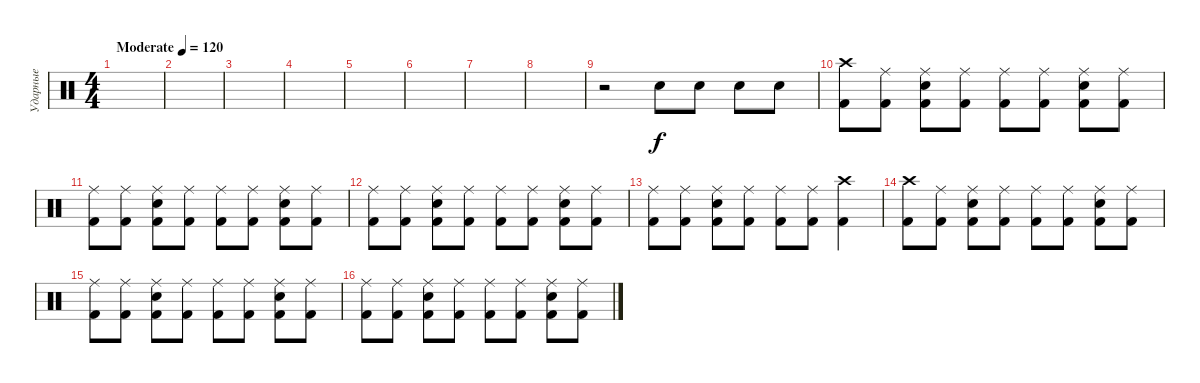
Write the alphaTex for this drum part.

\track ("Ударные" "Ударные") {instrument percussion}
\staff {score}
\articulation defaults
\ts (4 4)
\tempo (120 "Moderate")
\clef neutral
\ks c
|
|
|
|
|
|
|
|
r.2 "Snare (hit) 2".8 "Snare (hit) 2".8 "Snare (hit) 2".8 "Snare (hit) 2".8 |
("Crash high (hit)" "Kick (hit) 2").8 ("Ride (middle)" "Kick (hit) 2").8 ("Ride (middle)" "Snare (hit) 2" "Kick (hit) 2").8 ("Ride (middle)" "Kick (hit) 2").8 ("Ride (middle)" "Kick (hit) 2").8 ("Ride (middle)" "Kick (hit) 2").8 ("Ride (middle)" "Snare (hit) 2" "Kick (hit) 2").8 ("Ride (middle)" "Kick (hit) 2").8 |
("Ride (middle)" "Kick (hit) 2").8 ("Ride (middle)" "Kick (hit) 2").8 ("Ride (middle)" "Snare (hit) 2" "Kick (hit) 2").8 ("Ride (middle)" "Kick (hit) 2").8 ("Ride (middle)" "Kick (hit) 2").8 ("Ride (middle)" "Kick (hit) 2").8 ("Ride (middle)" "Snare (hit) 2" "Kick (hit) 2").8 ("Ride (middle)" "Kick (hit) 2").8 |
("Ride (middle)" "Kick (hit) 2").8 ("Ride (middle)" "Kick (hit) 2").8 ("Ride (middle)" "Snare (hit) 2" "Kick (hit) 2").8 ("Ride (middle)" "Kick (hit) 2").8 ("Ride (middle)" "Kick (hit) 2").8 ("Ride (middle)" "Kick (hit) 2").8 ("Ride (middle)" "Snare (hit) 2" "Kick (hit) 2").8 ("Ride (middle)" "Kick (hit) 2").8 |
("Ride (middle)" "Kick (hit) 2").8 ("Ride (middle)" "Kick (hit) 2").8 ("Ride (middle)" "Snare (hit) 2" "Kick (hit) 2").8 ("Ride (middle)" "Kick (hit) 2").8 ("Ride (middle)" "Kick (hit) 2").8 ("Ride (middle)" "Kick (hit) 2").8 ("Crash high (hit)" "Kick (hit) 2").4 |
("Crash high (hit)" "Kick (hit) 2").8 ("Ride (middle)" "Kick (hit) 2").8 ("Ride (middle)" "Snare (hit) 2" "Kick (hit) 2").8 ("Ride (middle)" "Kick (hit) 2").8 ("Ride (middle)" "Kick (hit) 2").8 ("Ride (middle)" "Kick (hit) 2").8 ("Ride (middle)" "Snare (hit) 2" "Kick (hit) 2").8 ("Ride (middle)" "Kick (hit) 2").8 |
("Ride (middle)" "Kick (hit) 2").8 ("Ride (middle)" "Kick (hit) 2").8 ("Ride (middle)" "Snare (hit) 2" "Kick (hit) 2").8 ("Ride (middle)" "Kick (hit) 2").8 ("Ride (middle)" "Kick (hit) 2").8 ("Ride (middle)" "Kick (hit) 2").8 ("Ride (middle)" "Snare (hit) 2" "Kick (hit) 2").8 ("Ride (middle)" "Kick (hit) 2").8 |
("Ride (middle)" "Kick (hit) 2").8 ("Ride (middle)" "Kick (hit) 2").8 ("Ride (middle)" "Snare (hit) 2" "Kick (hit) 2").8 ("Ride (middle)" "Kick (hit) 2").8 ("Ride (middle)" "Kick (hit) 2").8 ("Ride (middle)" "Kick (hit) 2").8 ("Ride (middle)" "Snare (hit) 2" "Kick (hit) 2").8 ("Ride (middle)" "Kick (hit) 2").8
